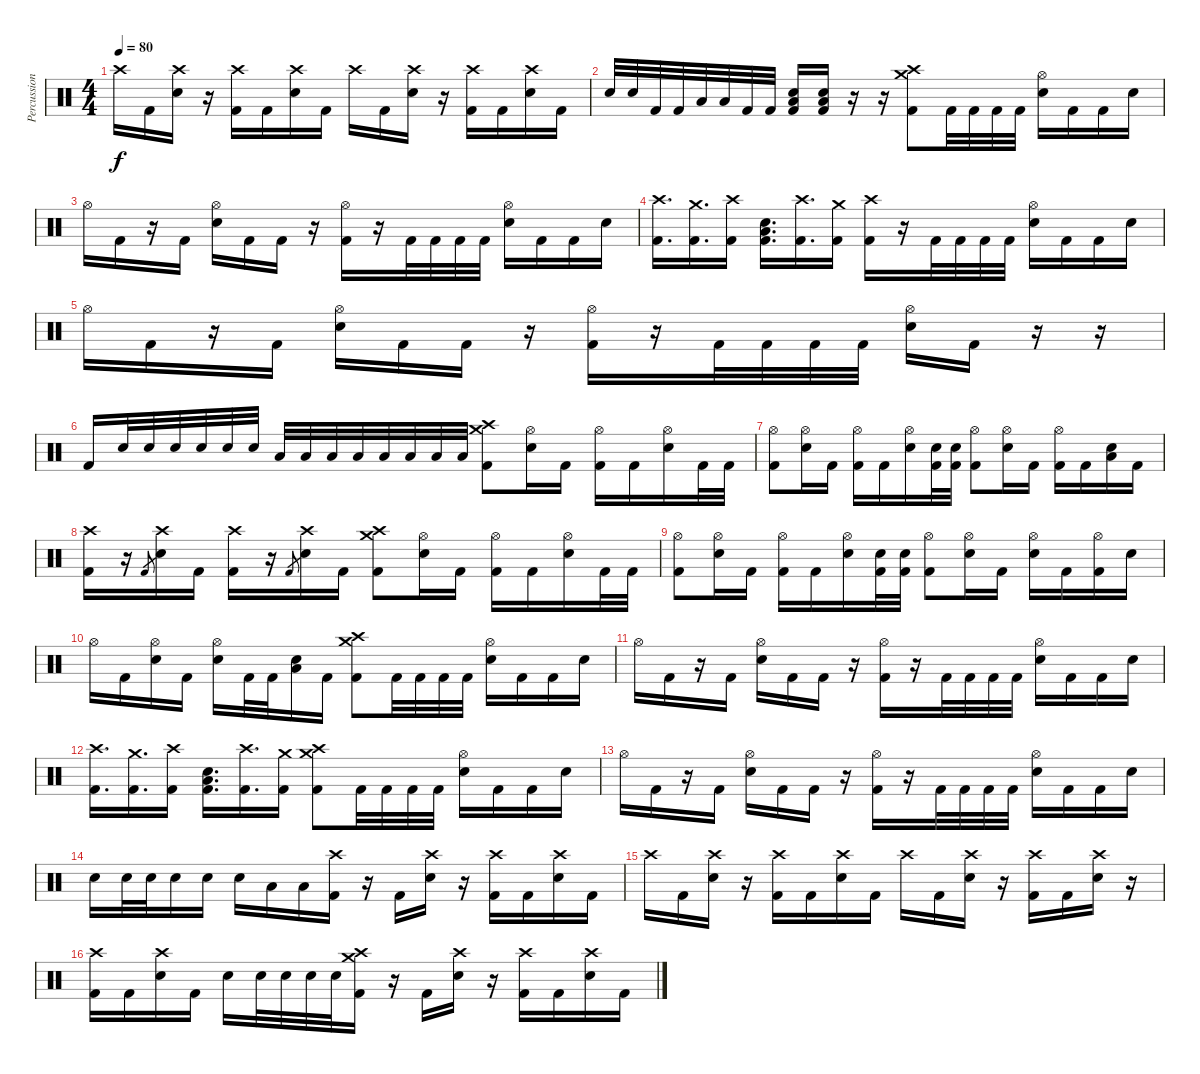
\track ("Percussion" "Percussion") {instrument percussion}
\staff {score}
\articulation defaults
\ts (4 4)
\tempo 80
\clef neutral
\ks c "Crash high (hit)".16{dy f} "Kick (hit) 2".16
("Crash high (hit)" "Electric Snare (hit)").16 r.16 ("Crash high (hit)" "Kick (hit) 2").16 "Kick (hit) 2".16 ("Crash high (hit)" "Electric Snare (hit)").16 "Kick (hit) 2".16 "Crash high (hit)".16 "Kick (hit) 2".16 ("Crash high (hit)" "Electric Snare (hit)").16 r.16 ("Crash high (hit)" "Kick (hit) 2").16 "Kick (hit) 2".16 ("Crash high (hit)" "Electric Snare (hit)").16 "Kick (hit) 2".16 |
"Electric Snare (hit)".32 "Electric Snare (hit)".32 "Kick (hit) 2".32 "Kick (hit) 2".32 "Low Tom (hit)".32 "Low Tom (hit)".32 "Kick (hit) 2".32 "Kick (hit) 2".32 ("Low Floor Tom (hit)" "Electric Snare (hit)" "Kick (hit) 2").16 ("Low Floor Tom (hit)" "Electric Snare (hit)" "Kick (hit) 2").16 r.16 r.16 ("Crash medium (hit)" "Crash high (hit)" "Kick (hit) 2").8 "Kick (hit) 2".32 "Kick (hit) 2".32 "Kick (hit) 2".32 "Kick (hit) 2".32 ("Hi-Hat (open)" "Electric Snare (hit)").16 "Kick (hit) 2".16 "Kick (hit) 2".16 "Electric Snare (hit)".16 |
"Hi-Hat (open)".16 "Kick (hit) 2".16 r.16 "Kick (hit) 2".16 ("Hi-Hat (open)" "Electric Snare (hit)").16 "Kick (hit) 2".16 "Kick (hit) 2".16 r.16 ("Hi-Hat (open)" "Kick (hit) 2").16 r.16 "Kick (hit) 2".32 "Kick (hit) 2".32 "Kick (hit) 2".32 "Kick (hit) 2".32 ("Hi-Hat (open)" "Electric Snare (hit)").16 "Kick (hit) 2".16 "Kick (hit) 2".16 "Electric Snare (hit)".16 |
("Crash high (hit)" "Kick (hit) 2").16{d} ("Crash medium (hit)" "Kick (hit) 2").16{d} ("Crash high (hit)" "Kick (hit) 2").16 ("Low Floor Tom (hit)" "Electric Snare (hit)" "Kick (hit) 2").16{d} ("Crash high (hit)" "Kick (hit) 2").16{d} ("Crash medium (hit)" "Kick (hit) 2").16 ("Crash high (hit)" "Kick (hit) 2").16 r.16 "Kick (hit) 2".32 "Kick (hit) 2".32 "Kick (hit) 2".32 "Kick (hit) 2".32 ("Hi-Hat (open)" "Electric Snare (hit)").16 "Kick (hit) 2".16 "Kick (hit) 2".16 "Electric Snare (hit)".16 |
"Hi-Hat (open)".16 "Kick (hit) 2".16 r.16 "Kick (hit) 2".16 ("Hi-Hat (open)" "Electric Snare (hit)").16 "Kick (hit) 2".16 "Kick (hit) 2".16 r.16 ("Hi-Hat (open)" "Kick (hit) 2").16 r.16 "Kick (hit) 2".32 "Kick (hit) 2".32 "Kick (hit) 2".32 "Kick (hit) 2".32 ("Hi-Hat (open)" "Electric Snare (hit)").16 "Kick (hit) 2".16 r.16 r.16 |
"Kick (hit) 2".16 "Electric Snare (hit)".32 "Electric Snare (hit)".32 "Electric Snare (hit)".32 "Electric Snare (hit)".32 "Electric Snare (hit)".32 "Electric Snare (hit)".32 "Low Tom (hit)".32 "Low Tom (hit)".32 "Low Tom (hit)".32 "Low Tom (hit)".32 "Low Floor Tom (hit)".32 "Low Floor Tom (hit)".32 "Low Floor Tom (hit)".32 "Low Floor Tom (hit)".32 ("Crash medium (hit)" "Crash high (hit)" "Kick (hit) 2").8 ("Hi-Hat (open)" "Electric Snare (hit)").16 "Kick (hit) 2".16 ("Hi-Hat (open)" "Kick (hit) 2").16 "Kick (hit) 2".16 ("Hi-Hat (open)" "Electric Snare (hit)").16 "Kick (hit) 2".32 "Kick (hit) 2".32 |
("Hi-Hat (open)" "Kick (hit) 2").8 ("Hi-Hat (open)" "Electric Snare (hit)").16 "Kick (hit) 2".16 ("Hi-Hat (open)" "Kick (hit) 2").16 "Kick (hit) 2".16 ("Hi-Hat (open)" "Electric Snare (hit)").16 ("Electric Snare (hit)" "Kick (hit) 2").32 ("Electric Snare (hit)" "Kick (hit) 2").32 ("Hi-Hat (open)" "Kick (hit) 2").8 ("Hi-Hat (open)" "Electric Snare (hit)").16 "Kick (hit) 2".16 ("Hi-Hat (open)" "Kick (hit) 2").16 "Kick (hit) 2".16 ("Low Floor Tom (hit)" "Electric Snare (hit)").16 "Kick (hit) 2".16 |
("Crash high (hit)" "Kick (hit) 2").16 r.16 "Kick (hit) 2".8{gr} ("Crash high (hit)" "Electric Snare (hit)").16 "Kick (hit) 2".16 ("Crash high (hit)" "Kick (hit) 2").16 r.16 "Kick (hit) 2".8{gr} ("Crash high (hit)" "Electric Snare (hit)").16 "Kick (hit) 2".16 ("Crash medium (hit)" "Crash high (hit)" "Kick (hit) 2").8 ("Hi-Hat (open)" "Electric Snare (hit)").16 "Kick (hit) 2".16 ("Hi-Hat (open)" "Kick (hit) 2").16 "Kick (hit) 2".16 ("Hi-Hat (open)" "Electric Snare (hit)").16 "Kick (hit) 2".32 "Kick (hit) 2".32 |
("Hi-Hat (open)" "Kick (hit) 2").8 ("Hi-Hat (open)" "Electric Snare (hit)").16 "Kick (hit) 2".16 ("Hi-Hat (open)" "Kick (hit) 2").16 "Kick (hit) 2".16 ("Hi-Hat (open)" "Electric Snare (hit)").16 ("Electric Snare (hit)" "Kick (hit) 2").32 ("Electric Snare (hit)" "Kick (hit) 2").32 ("Hi-Hat (open)" "Kick (hit) 2").8 ("Hi-Hat (open)" "Electric Snare (hit)").16 "Kick (hit) 2".16 ("Hi-Hat (open)" "Electric Snare (hit)").16 "Kick (hit) 2".16 ("Hi-Hat (open)" "Kick (hit) 2").16 "Electric Snare (hit)".16 |
"Hi-Hat (open)".16 "Kick (hit) 2".16 ("Hi-Hat (open)" "Electric Snare (hit)").16 "Kick (hit) 2".16 ("Hi-Hat (open)" "Electric Snare (hit)").16 "Kick (hit) 2".32 "Kick (hit) 2".32 ("Low Floor Tom (hit)" "Electric Snare (hit)").16 "Kick (hit) 2".16 ("Crash medium (hit)" "Crash high (hit)" "Kick (hit) 2").8 "Kick (hit) 2".32 "Kick (hit) 2".32 "Kick (hit) 2".32 "Kick (hit) 2".32 ("Hi-Hat (open)" "Electric Snare (hit)").16 "Kick (hit) 2".16 "Kick (hit) 2".16 "Electric Snare (hit)".16 |
"Hi-Hat (open)".16 "Kick (hit) 2".16 r.16 "Kick (hit) 2".16 ("Hi-Hat (open)" "Electric Snare (hit)").16 "Kick (hit) 2".16 "Kick (hit) 2".16 r.16 ("Hi-Hat (open)" "Kick (hit) 2").16 r.16 "Kick (hit) 2".32 "Kick (hit) 2".32 "Kick (hit) 2".32 "Kick (hit) 2".32 ("Hi-Hat (open)" "Electric Snare (hit)").16 "Kick (hit) 2".16 "Kick (hit) 2".16 "Electric Snare (hit)".16 |
("Crash high (hit)" "Kick (hit) 2").16{d} ("Crash medium (hit)" "Kick (hit) 2").16{d} ("Crash high (hit)" "Kick (hit) 2").16 ("Low Floor Tom (hit)" "Electric Snare (hit)" "Kick (hit) 2").16{d} ("Crash high (hit)" "Kick (hit) 2").16{d} ("Crash medium (hit)" "Kick (hit) 2").16 ("Crash medium (hit)" "Crash high (hit)" "Kick (hit) 2").8 "Kick (hit) 2".32 "Kick (hit) 2".32 "Kick (hit) 2".32 "Kick (hit) 2".32 ("Hi-Hat (open)" "Electric Snare (hit)").16 "Kick (hit) 2".16 "Kick (hit) 2".16 "Electric Snare (hit)".16 |
"Hi-Hat (open)".16 "Kick (hit) 2".16 r.16 "Kick (hit) 2".16 ("Hi-Hat (open)" "Electric Snare (hit)").16 "Kick (hit) 2".16 "Kick (hit) 2".16 r.16 ("Hi-Hat (open)" "Kick (hit) 2").16 r.16 "Kick (hit) 2".32 "Kick (hit) 2".32 "Kick (hit) 2".32 "Kick (hit) 2".32 ("Hi-Hat (open)" "Electric Snare (hit)").16 "Kick (hit) 2".16 "Kick (hit) 2".16 "Electric Snare (hit)".16 |
"Electric Snare (hit)".16 "Electric Snare (hit)".32 "Electric Snare (hit)".32 "Electric Snare (hit)".16 "Electric Snare (hit)".16 "Electric Snare (hit)".16 "Low Tom (hit)".16 "Low Tom (hit)".16 ("Crash high (hit)" "Kick (hit) 2").16 r.16 "Kick (hit) 2".16 ("Crash high (hit)" "Electric Snare (hit)").16 r.16 ("Crash high (hit)" "Kick (hit) 2").16 "Kick (hit) 2".16 ("Crash high (hit)" "Electric Snare (hit)").16 "Kick (hit) 2".16 |
"Crash high (hit)".16 "Kick (hit) 2".16 ("Crash high (hit)" "Electric Snare (hit)").16 r.16 ("Crash high (hit)" "Kick (hit) 2").16 "Kick (hit) 2".16 ("Crash high (hit)" "Electric Snare (hit)").16 "Kick (hit) 2".16 "Crash high (hit)".16 "Kick (hit) 2".16 ("Crash high (hit)" "Electric Snare (hit)").16 r.16 ("Crash high (hit)" "Kick (hit) 2").16 "Kick (hit) 2".16 ("Crash high (hit)" "Electric Snare (hit)").16 r.16 |
("Crash high (hit)" "Kick (hit) 2").16 "Kick (hit) 2".16 ("Crash high (hit)" "Electric Snare (hit)").16 "Kick (hit) 2".16 "Electric Snare (hit)".16 "Electric Snare (hit)".32 "Electric Snare (hit)".32 "Electric Snare (hit)".32 "Electric Snare (hit)".32 ("Crash medium (hit)" "Crash high (hit)" "Kick (hit) 2").16 r.16 "Kick (hit) 2".16 ("Crash high (hit)" "Electric Snare (hit)").16 r.16 ("Crash high (hit)" "Kick (hit) 2").16 "Kick (hit) 2".16 ("Crash high (hit)" "Electric Snare (hit)").16 "Kick (hit) 2".16
